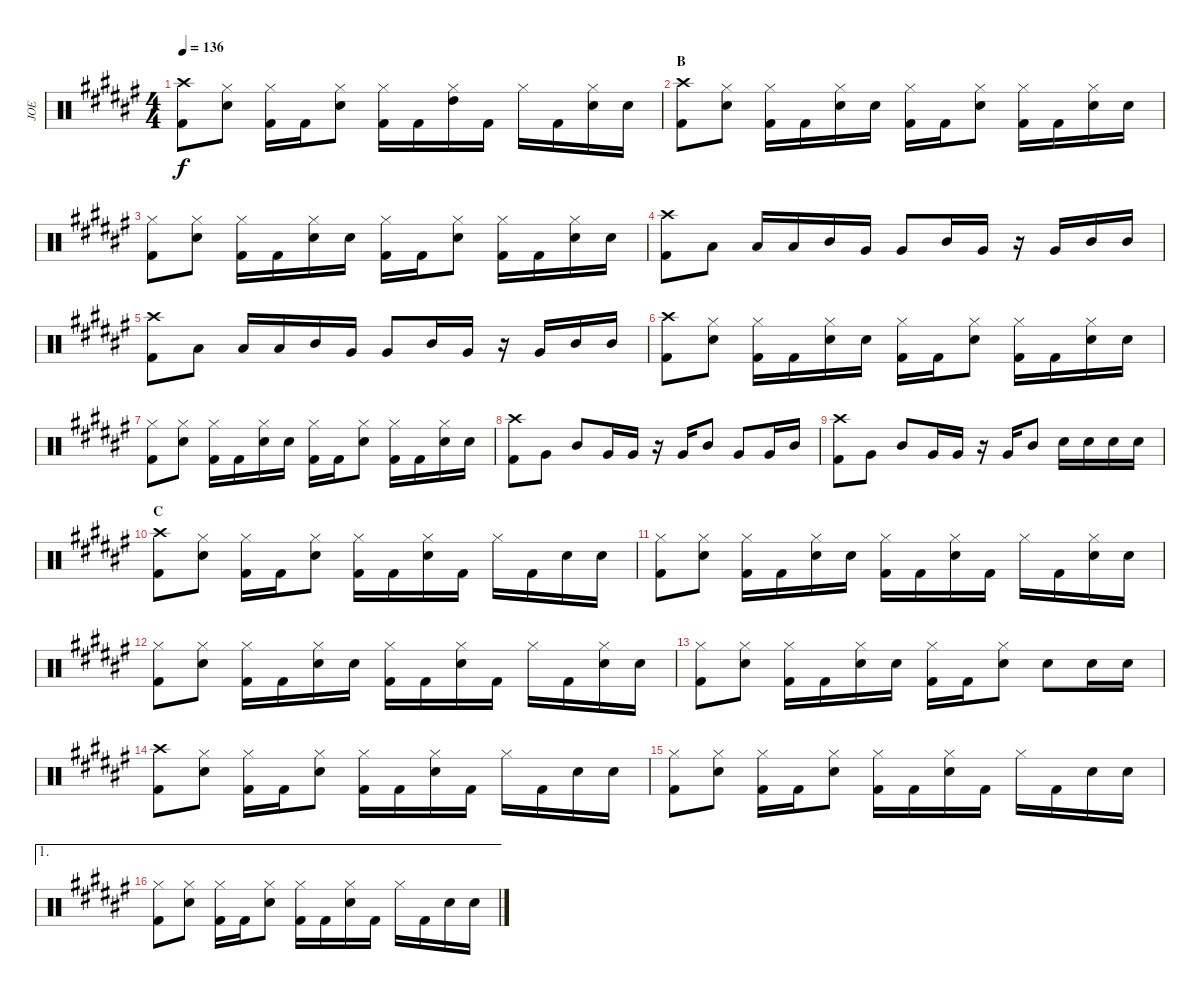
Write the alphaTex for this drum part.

\track ("JOE" "JOE") {instrument percussion}
\staff {score}
\articulation defaults
\ts (4 4)
\tempo 136
\clef neutral
\ks f#
("Crash high (hit)" "Kick (hit) 2").8{dy f} ("Hi-Hat (closed)" "Snare (hit) 2").8 ("Hi-Hat (closed)" "Kick (hit) 2").16 "Kick (hit) 2".16 ("Hi-Hat (closed)" "Snare (hit) 2").8 ("Hi-Hat (closed)" "Kick (hit) 2").16 "Kick (hit) 2".16 ("Hi-Hat (closed)" "High Tom (hit)").16 "Kick (hit) 2".16 "Hi-Hat (closed)".16 "Kick (hit) 2".16 ("Hi-Hat (closed)" "Snare (hit) 2").16 "Snare (hit) 2".16 |
\section ("" "B")
("Crash high (hit)" "Kick (hit) 2").8 ("Hi-Hat (closed)" "Snare (hit) 2").8 ("Hi-Hat (closed)" "Kick (hit) 2").16 "Kick (hit) 2".16 ("Hi-Hat (closed)" "Snare (hit) 2").16 "Snare (hit) 2".16 ("Hi-Hat (closed)" "Kick (hit) 2").16 "Kick (hit) 2".16 ("Hi-Hat (closed)" "Snare (hit) 2").8 ("Hi-Hat (closed)" "Kick (hit) 2").16 "Kick (hit) 2".16 ("Hi-Hat (closed)" "Snare (hit) 2").16 "Snare (hit) 2".16 |
("Hi-Hat (closed)" "Kick (hit) 2").8 ("Hi-Hat (closed)" "Snare (hit) 2").8 ("Hi-Hat (closed)" "Kick (hit) 2").16 "Kick (hit) 2".16 ("Hi-Hat (closed)" "Snare (hit) 2").16 "Snare (hit) 2".16 ("Hi-Hat (closed)" "Kick (hit) 2").16 "Kick (hit) 2".16 ("Hi-Hat (closed)" "Snare (hit) 2").8 ("Hi-Hat (closed)" "Kick (hit) 2").16 "Kick (hit) 2".16 ("Hi-Hat (closed)" "Snare (hit) 2").16 "Snare (hit) 2".16 |
("Crash high (hit)" "Kick (hit) 2").8 "Low Tom (hit)".8 "Low Tom (hit)".16 "Low Tom (hit)".16 "Mid Tom (hit)".16 "Very Low Tom (hit)".16 "Very Low Tom (hit)".8 "Mid Tom (hit)".16 "Very Low Tom (hit)".16 r.16 "Very Low Tom (hit)".16 "Mid Tom (hit)".16 "Mid Tom (hit)".16 |
("Crash high (hit)" "Kick (hit) 2").8 "Low Tom (hit)".8 "Low Tom (hit)".16 "Low Tom (hit)".16 "Mid Tom (hit)".16 "Very Low Tom (hit)".16 "Very Low Tom (hit)".8 "Mid Tom (hit)".16 "Very Low Tom (hit)".16 r.16 "Very Low Tom (hit)".16 "Mid Tom (hit)".16 "Mid Tom (hit)".16 |
("Crash high (hit)" "Kick (hit) 2").8 ("Hi-Hat (closed)" "Snare (hit) 2").8 ("Hi-Hat (closed)" "Kick (hit) 2").16 "Kick (hit) 2".16 ("Hi-Hat (closed)" "Snare (hit) 2").16 "Snare (hit) 2".16 ("Hi-Hat (closed)" "Kick (hit) 2").16 "Kick (hit) 2".16 ("Hi-Hat (closed)" "Snare (hit) 2").8 ("Hi-Hat (closed)" "Kick (hit) 2").16 "Kick (hit) 2".16 ("Hi-Hat (closed)" "Snare (hit) 2").16 "Snare (hit) 2".16 |
("Hi-Hat (closed)" "Kick (hit) 2").8 ("Hi-Hat (closed)" "Snare (hit) 2").8 ("Hi-Hat (closed)" "Kick (hit) 2").16 "Kick (hit) 2".16 ("Hi-Hat (closed)" "Snare (hit) 2").16 "Snare (hit) 2".16 ("Hi-Hat (closed)" "Kick (hit) 2").16 "Kick (hit) 2".16 ("Hi-Hat (closed)" "Snare (hit) 2").8 ("Hi-Hat (closed)" "Kick (hit) 2").16 "Kick (hit) 2".16 ("Hi-Hat (closed)" "Snare (hit) 2").16 "Snare (hit) 2".16 |
("Crash high (hit)" "Kick (hit) 2").8 "Very Low Tom (hit)".8 "Mid Tom (hit)".8 "Very Low Tom (hit)".16 "Very Low Tom (hit)".16 r.16 "Very Low Tom (hit)".16 "Mid Tom (hit)".8 "Very Low Tom (hit)".8 "Very Low Tom (hit)".16 "Mid Tom (hit)".16 |
("Crash high (hit)" "Kick (hit) 2").8 "Very Low Tom (hit)".8 "Mid Tom (hit)".8 "Very Low Tom (hit)".16 "Very Low Tom (hit)".16 r.16 "Very Low Tom (hit)".16 "Mid Tom (hit)".8 "Snare (hit) 2".16 "Snare (hit) 2".16 "Snare (hit) 2".16 "Snare (hit) 2".16 |
\section ("" "C")
("Crash high (hit)" "Kick (hit) 2").8 ("Hi-Hat (closed)" "Snare (hit) 2").8 ("Hi-Hat (closed)" "Kick (hit) 2").16 "Kick (hit) 2".16 ("Hi-Hat (closed)" "Snare (hit) 2").8 ("Hi-Hat (closed)" "Kick (hit) 2").16 "Kick (hit) 2".16 ("Hi-Hat (closed)" "Snare (hit) 2").16 "Kick (hit) 2".16 "Hi-Hat (closed)".16 "Kick (hit) 2".16 "Snare (hit) 2".16 "Snare (hit) 2".16 |
("Hi-Hat (closed)" "Kick (hit) 2").8 ("Hi-Hat (closed)" "Snare (hit) 2").8 ("Hi-Hat (closed)" "Kick (hit) 2").16 "Kick (hit) 2".16 ("Hi-Hat (closed)" "Snare (hit) 2").16 "Snare (hit) 2".16 ("Hi-Hat (closed)" "Kick (hit) 2").16 "Kick (hit) 2".16 ("Hi-Hat (closed)" "Snare (hit) 2").16 "Kick (hit) 2".16 "Hi-Hat (closed)".16 "Kick (hit) 2".16 ("Hi-Hat (closed)" "Snare (hit) 2").16 "Snare (hit) 2".16 |
("Hi-Hat (closed)" "Kick (hit) 2").8 ("Hi-Hat (closed)" "Snare (hit) 2").8 ("Hi-Hat (closed)" "Kick (hit) 2").16 "Kick (hit) 2".16 ("Hi-Hat (closed)" "Snare (hit) 2").16 "Snare (hit) 2".16 ("Hi-Hat (closed)" "Kick (hit) 2").16 "Kick (hit) 2".16 ("Hi-Hat (closed)" "Snare (hit) 2").16 "Kick (hit) 2".16 "Hi-Hat (closed)".16 "Kick (hit) 2".16 ("Hi-Hat (closed)" "Snare (hit) 2").16 "Snare (hit) 2".16 |
("Hi-Hat (closed)" "Kick (hit) 2").8 ("Hi-Hat (closed)" "Snare (hit) 2").8 ("Hi-Hat (closed)" "Kick (hit) 2").16 "Kick (hit) 2".16 ("Hi-Hat (closed)" "Snare (hit) 2").16 "Snare (hit) 2".16 ("Hi-Hat (closed)" "Kick (hit) 2").16 "Kick (hit) 2".16 ("Hi-Hat (closed)" "Snare (hit) 2").8 "Snare (hit) 2".8 "Snare (hit) 2".16 "Snare (hit) 2".16 |
("Crash high (hit)" "Kick (hit) 2").8 ("Hi-Hat (closed)" "Snare (hit) 2").8 ("Hi-Hat (closed)" "Kick (hit) 2").16 "Kick (hit) 2".16 ("Hi-Hat (closed)" "Snare (hit) 2").8 ("Hi-Hat (closed)" "Kick (hit) 2").16 "Kick (hit) 2".16 ("Hi-Hat (closed)" "Snare (hit) 2").16 "Kick (hit) 2".16 "Hi-Hat (closed)".16 "Kick (hit) 2".16 "Snare (hit) 2".16 "Snare (hit) 2".16 |
("Hi-Hat (closed)" "Kick (hit) 2").8 ("Hi-Hat (closed)" "Snare (hit) 2").8 ("Hi-Hat (closed)" "Kick (hit) 2").16 "Kick (hit) 2".16 ("Hi-Hat (closed)" "Snare (hit) 2").8 ("Hi-Hat (closed)" "Kick (hit) 2").16 "Kick (hit) 2".16 ("Hi-Hat (closed)" "Snare (hit) 2").16 "Kick (hit) 2".16 "Hi-Hat (closed)".16 "Kick (hit) 2".16 "Snare (hit) 2".16 "Snare (hit) 2".16 |
\ae 1
("Hi-Hat (closed)" "Kick (hit) 2").8 ("Hi-Hat (closed)" "Snare (hit) 2").8 ("Hi-Hat (closed)" "Kick (hit) 2").16 "Kick (hit) 2".16 ("Hi-Hat (closed)" "Snare (hit) 2").8 ("Hi-Hat (closed)" "Kick (hit) 2").16 "Kick (hit) 2".16 ("Hi-Hat (closed)" "Snare (hit) 2").16 "Kick (hit) 2".16 "Hi-Hat (closed)".16 "Kick (hit) 2".16 "Snare (hit) 2".16 "Snare (hit) 2".16
